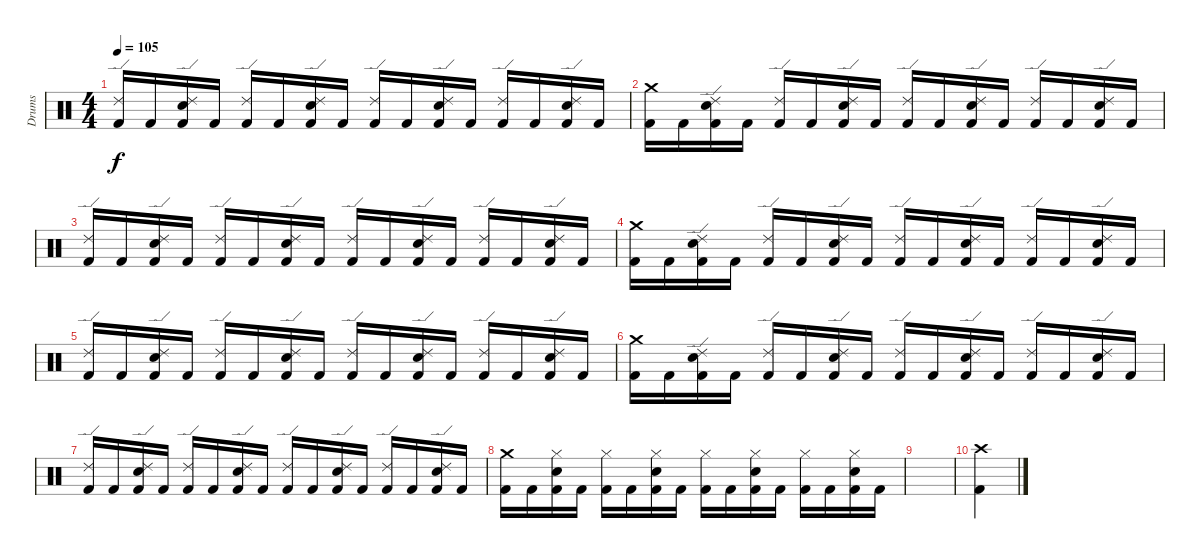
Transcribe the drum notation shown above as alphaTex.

\track ("Drums" "Drums") {instrument percussion}
\staff {score}
\articulation defaults
\ts (4 4)
\tempo 105
\clef neutral
\ks c
("Ride (edge) 2" "Kick (hit) 2").16{dy f} "Kick (hit) 2".16 ("Ride (edge) 2" "Electric Snare (hit)" "Kick (hit) 2").16 "Kick (hit) 2".16 ("Ride (edge) 2" "Kick (hit) 2").16 "Kick (hit) 2".16 ("Ride (edge) 2" "Electric Snare (hit)" "Kick (hit) 2").16 "Kick (hit) 2".16 ("Ride (edge) 2" "Kick (hit) 2").16 "Kick (hit) 2".16 ("Ride (edge) 2" "Electric Snare (hit)" "Kick (hit) 2").16 "Kick (hit) 2".16 ("Ride (edge) 2" "Kick (hit) 2").16 "Kick (hit) 2".16 ("Ride (edge) 2" "Electric Snare (hit)" "Kick (hit) 2").16 "Kick (hit) 2".16 |
("Crash medium (hit)" "Kick (hit) 2").16 "Kick (hit) 2".16 ("Ride (edge) 2" "Electric Snare (hit)" "Kick (hit) 2").16 "Kick (hit) 2".16 ("Ride (edge) 2" "Kick (hit) 2").16 "Kick (hit) 2".16 ("Ride (edge) 2" "Electric Snare (hit)" "Kick (hit) 2").16 "Kick (hit) 2".16 ("Ride (edge) 2" "Kick (hit) 2").16 "Kick (hit) 2".16 ("Ride (edge) 2" "Electric Snare (hit)" "Kick (hit) 2").16 "Kick (hit) 2".16 ("Ride (edge) 2" "Kick (hit) 2").16 "Kick (hit) 2".16 ("Ride (edge) 2" "Electric Snare (hit)" "Kick (hit) 2").16 "Kick (hit) 2".16 |
("Ride (edge) 2" "Kick (hit) 2").16 "Kick (hit) 2".16 ("Ride (edge) 2" "Electric Snare (hit)" "Kick (hit) 2").16 "Kick (hit) 2".16 ("Ride (edge) 2" "Kick (hit) 2").16 "Kick (hit) 2".16 ("Ride (edge) 2" "Electric Snare (hit)" "Kick (hit) 2").16 "Kick (hit) 2".16 ("Ride (edge) 2" "Kick (hit) 2").16 "Kick (hit) 2".16 ("Ride (edge) 2" "Electric Snare (hit)" "Kick (hit) 2").16 "Kick (hit) 2".16 ("Ride (edge) 2" "Kick (hit) 2").16 "Kick (hit) 2".16 ("Ride (edge) 2" "Electric Snare (hit)" "Kick (hit) 2").16 "Kick (hit) 2".16 |
("Crash medium (hit)" "Kick (hit) 2").16 "Kick (hit) 2".16 ("Ride (edge) 2" "Electric Snare (hit)" "Kick (hit) 2").16 "Kick (hit) 2".16 ("Ride (edge) 2" "Kick (hit) 2").16 "Kick (hit) 2".16 ("Ride (edge) 2" "Electric Snare (hit)" "Kick (hit) 2").16 "Kick (hit) 2".16 ("Ride (edge) 2" "Kick (hit) 2").16 "Kick (hit) 2".16 ("Ride (edge) 2" "Electric Snare (hit)" "Kick (hit) 2").16 "Kick (hit) 2".16 ("Ride (edge) 2" "Kick (hit) 2").16 "Kick (hit) 2".16 ("Ride (edge) 2" "Electric Snare (hit)" "Kick (hit) 2").16 "Kick (hit) 2".16 |
("Ride (edge) 2" "Kick (hit) 2").16 "Kick (hit) 2".16 ("Ride (edge) 2" "Electric Snare (hit)" "Kick (hit) 2").16 "Kick (hit) 2".16 ("Ride (edge) 2" "Kick (hit) 2").16 "Kick (hit) 2".16 ("Ride (edge) 2" "Electric Snare (hit)" "Kick (hit) 2").16 "Kick (hit) 2".16 ("Ride (edge) 2" "Kick (hit) 2").16 "Kick (hit) 2".16 ("Ride (edge) 2" "Electric Snare (hit)" "Kick (hit) 2").16 "Kick (hit) 2".16 ("Ride (edge) 2" "Kick (hit) 2").16 "Kick (hit) 2".16 ("Ride (edge) 2" "Electric Snare (hit)" "Kick (hit) 2").16 "Kick (hit) 2".16 |
("Crash medium (hit)" "Kick (hit) 2").16 "Kick (hit) 2".16 ("Ride (edge) 2" "Electric Snare (hit)" "Kick (hit) 2").16 "Kick (hit) 2".16 ("Ride (edge) 2" "Kick (hit) 2").16 "Kick (hit) 2".16 ("Ride (edge) 2" "Electric Snare (hit)" "Kick (hit) 2").16 "Kick (hit) 2".16 ("Ride (edge) 2" "Kick (hit) 2").16 "Kick (hit) 2".16 ("Ride (edge) 2" "Electric Snare (hit)" "Kick (hit) 2").16 "Kick (hit) 2".16 ("Ride (edge) 2" "Kick (hit) 2").16 "Kick (hit) 2".16 ("Ride (edge) 2" "Electric Snare (hit)" "Kick (hit) 2").16 "Kick (hit) 2".16 |
("Ride (edge) 2" "Kick (hit) 2").16 "Kick (hit) 2".16 ("Ride (edge) 2" "Electric Snare (hit)" "Kick (hit) 2").16 "Kick (hit) 2".16 ("Ride (edge) 2" "Kick (hit) 2").16 "Kick (hit) 2".16 ("Ride (edge) 2" "Electric Snare (hit)" "Kick (hit) 2").16 "Kick (hit) 2".16 ("Ride (edge) 2" "Kick (hit) 2").16 "Kick (hit) 2".16 ("Ride (edge) 2" "Electric Snare (hit)" "Kick (hit) 2").16 "Kick (hit) 2".16 ("Ride (edge) 2" "Kick (hit) 2").16 "Kick (hit) 2".16 ("Ride (edge) 2" "Electric Snare (hit)" "Kick (hit) 2").16 "Kick (hit) 2".16 |
("Crash medium (hit)" "Kick (hit) 2").16 "Kick (hit) 2".16 ("Hi-Hat (closed)" "Electric Snare (hit)" "Kick (hit) 2").16 "Kick (hit) 2".16 ("Hi-Hat (closed)" "Kick (hit) 2").16 "Kick (hit) 2".16 ("Hi-Hat (closed)" "Electric Snare (hit)" "Kick (hit) 2").16 "Kick (hit) 2".16 ("Hi-Hat (closed)" "Kick (hit) 2").16 "Kick (hit) 2".16 ("Hi-Hat (closed)" "Electric Snare (hit)" "Kick (hit) 2").16 "Kick (hit) 2".16 ("Hi-Hat (closed)" "Kick (hit) 2").16 "Kick (hit) 2".16 ("Hi-Hat (closed)" "Electric Snare (hit)" "Kick (hit) 2").16 "Kick (hit) 2".16 |
|
("Crash high (hit)" "Kick (hit) 2").4
